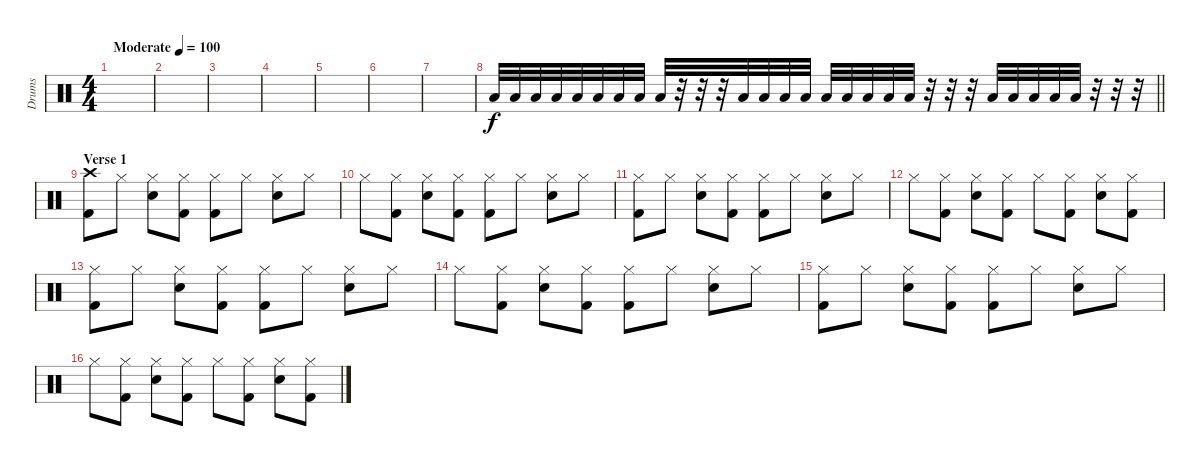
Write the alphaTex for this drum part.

\track ("Drums" "Drums") {instrument percussion}
\staff {score}
\articulation defaults
\ts (4 4)
\tempo (100 "Moderate")
\clef neutral
\ks c
|
|
|
|
|
|
|
\barLineRight lightlight "Low Tom (hit)".32 "Low Tom (hit)".32 "Low Tom (hit)".32 "Low Tom (hit)".32 "Low Tom (hit)".32 "Low Tom (hit)".32 "Low Tom (hit)".32 "Low Tom (hit)".32 "Low Tom (hit)".32
r.32 r.32 r.32 "Low Tom (hit)".32 "Low Tom (hit)".32 "Low Tom (hit)".32 "Low Tom (hit)".32 "Low Tom (hit)".32 "Low Tom (hit)".32 "Low Tom (hit)".32 "Low Tom (hit)".32 "Low Tom (hit)".32 r.32 r.32 r.32 "Low Tom (hit)".32 "Low Tom (hit)".32 "Low Tom (hit)".32 "Low Tom (hit)".32 "Low Tom (hit)".32 r.32 r.32 r.32 |
\section ("" "Verse 1")
("Crash high (hit)" "Kick (hit) 2").8 "Hi-Hat (closed)".8 ("Hi-Hat (closed)" "Snare (hit) 2").8 ("Hi-Hat (closed)" "Kick (hit) 2").8 ("Hi-Hat (closed)" "Kick (hit) 2").8 "Hi-Hat (closed)".8 ("Hi-Hat (closed)" "Snare (hit) 2").8 "Hi-Hat (closed)".8 |
"Hi-Hat (closed)".8 ("Hi-Hat (closed)" "Kick (hit) 2").8 ("Hi-Hat (closed)" "Snare (hit) 2").8 ("Hi-Hat (closed)" "Kick (hit) 2").8 ("Hi-Hat (closed)" "Kick (hit) 2").8 "Hi-Hat (closed)".8 ("Hi-Hat (closed)" "Snare (hit) 2").8 "Hi-Hat (closed)".8 |
("Hi-Hat (closed)" "Kick (hit) 2").8 "Hi-Hat (closed)".8 ("Hi-Hat (closed)" "Snare (hit) 2").8 ("Hi-Hat (closed)" "Kick (hit) 2").8 ("Hi-Hat (closed)" "Kick (hit) 2").8 "Hi-Hat (closed)".8 ("Hi-Hat (closed)" "Snare (hit) 2").8 "Hi-Hat (closed)".8 |
"Hi-Hat (closed)".8 ("Hi-Hat (closed)" "Kick (hit) 2").8 ("Hi-Hat (closed)" "Snare (hit) 2").8 ("Hi-Hat (closed)" "Kick (hit) 2").8 "Hi-Hat (closed)".8 ("Hi-Hat (closed)" "Kick (hit) 2").8 ("Hi-Hat (closed)" "Snare (hit) 2").8 ("Hi-Hat (closed)" "Kick (hit) 2").8 |
("Hi-Hat (closed)" "Kick (hit) 2").8 "Hi-Hat (closed)".8 ("Hi-Hat (closed)" "Snare (hit) 2").8 ("Hi-Hat (closed)" "Kick (hit) 2").8 ("Hi-Hat (closed)" "Kick (hit) 2").8 "Hi-Hat (closed)".8 ("Hi-Hat (closed)" "Snare (hit) 2").8 "Hi-Hat (closed)".8 |
"Hi-Hat (closed)".8 ("Hi-Hat (closed)" "Kick (hit) 2").8 ("Hi-Hat (closed)" "Snare (hit) 2").8 ("Hi-Hat (closed)" "Kick (hit) 2").8 ("Hi-Hat (closed)" "Kick (hit) 2").8 "Hi-Hat (closed)".8 ("Hi-Hat (closed)" "Snare (hit) 2").8 "Hi-Hat (closed)".8 |
("Hi-Hat (closed)" "Kick (hit) 2").8 "Hi-Hat (closed)".8 ("Hi-Hat (closed)" "Snare (hit) 2").8 ("Hi-Hat (closed)" "Kick (hit) 2").8 ("Hi-Hat (closed)" "Kick (hit) 2").8 "Hi-Hat (closed)".8 ("Hi-Hat (closed)" "Snare (hit) 2").8 "Hi-Hat (closed)".8 |
"Hi-Hat (closed)".8 ("Hi-Hat (closed)" "Kick (hit) 2").8 ("Hi-Hat (closed)" "Snare (hit) 2").8 ("Hi-Hat (closed)" "Kick (hit) 2").8 "Hi-Hat (closed)".8 ("Hi-Hat (closed)" "Kick (hit) 2").8 ("Hi-Hat (closed)" "Snare (hit) 2").8 ("Hi-Hat (closed)" "Kick (hit) 2").8
